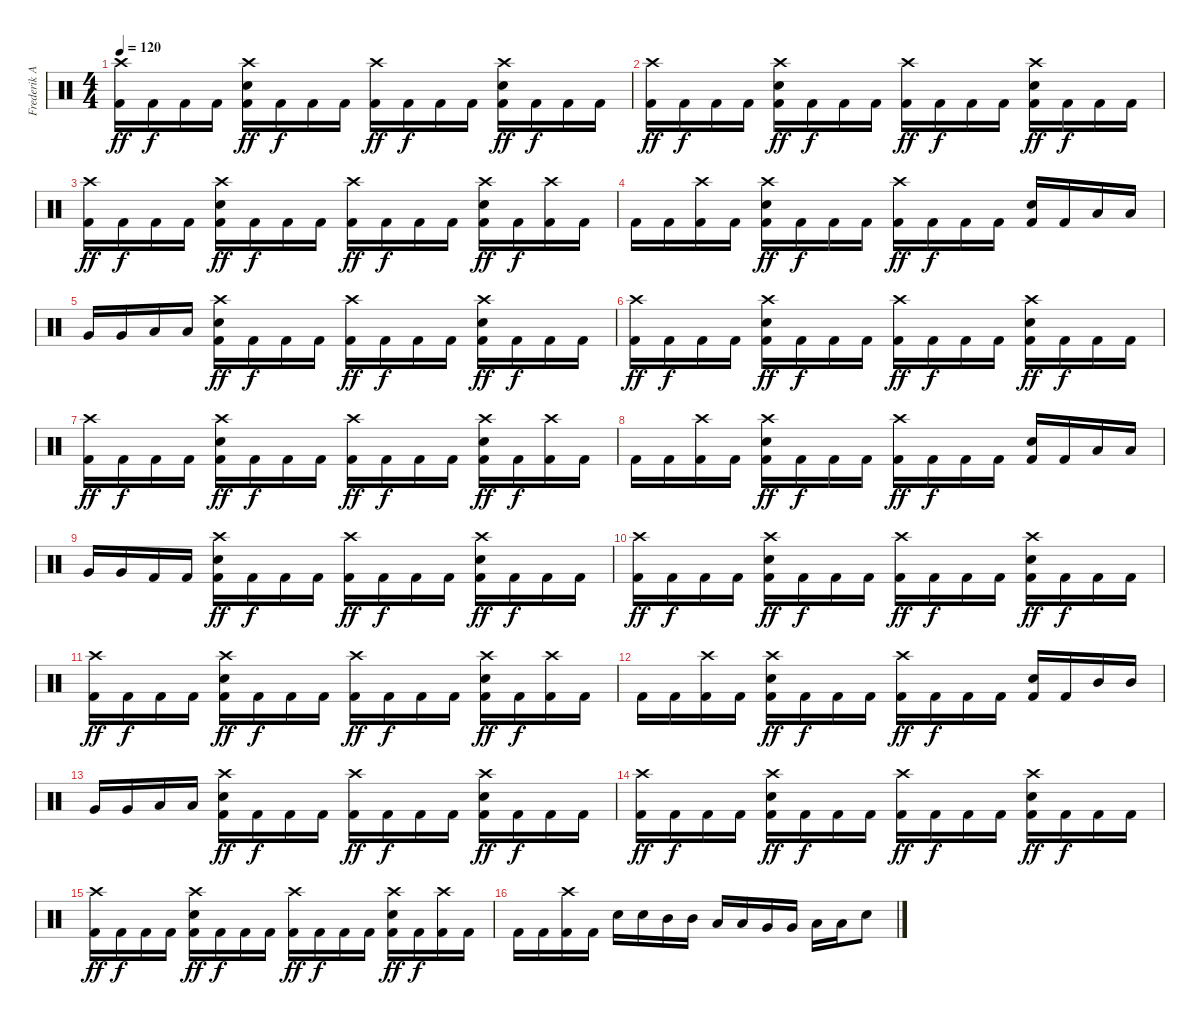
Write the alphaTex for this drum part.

\track ("Frederik Anderson" "Frederik A") {instrument percussion}
\staff {score}
\articulation defaults
\ts (4 4)
\tempo 120
\clef neutral
\ks c
("Crash high (hit)" "Kick (hit) 2").16{dy ff} "Kick (hit) 2".16{dy f} "Kick (hit) 2".16 "Kick (hit) 2".16 ("Crash high (hit)" "Electric Snare (hit)" "Kick (hit) 2").16{dy ff} "Kick (hit) 2".16{dy f} "Kick (hit) 2".16 "Kick (hit) 2".16 ("Crash high (hit)" "Kick (hit) 2").16{dy ff} "Kick (hit) 2".16{dy f} "Kick (hit) 2".16 "Kick (hit) 2".16 ("Crash high (hit)" "Electric Snare (hit)" "Kick (hit) 2").16{dy ff} "Kick (hit) 2".16{dy f} "Kick (hit) 2".16 "Kick (hit) 2".16 |
("Crash high (hit)" "Kick (hit) 2").16{dy ff} "Kick (hit) 2".16{dy f} "Kick (hit) 2".16 "Kick (hit) 2".16 ("Crash high (hit)" "Electric Snare (hit)" "Kick (hit) 2").16{dy ff} "Kick (hit) 2".16{dy f} "Kick (hit) 2".16 "Kick (hit) 2".16 ("Crash high (hit)" "Kick (hit) 2").16{dy ff} "Kick (hit) 2".16{dy f} "Kick (hit) 2".16 "Kick (hit) 2".16 ("Crash high (hit)" "Electric Snare (hit)" "Kick (hit) 2").16{dy ff} "Kick (hit) 2".16{dy f} "Kick (hit) 2".16 "Kick (hit) 2".16 |
("Crash high (hit)" "Kick (hit) 2").16{dy ff} "Kick (hit) 2".16{dy f} "Kick (hit) 2".16 "Kick (hit) 2".16 ("Crash high (hit)" "Electric Snare (hit)" "Kick (hit) 2").16{dy ff} "Kick (hit) 2".16{dy f} "Kick (hit) 2".16 "Kick (hit) 2".16 ("Crash high (hit)" "Kick (hit) 2").16{dy ff} "Kick (hit) 2".16{dy f} "Kick (hit) 2".16 "Kick (hit) 2".16 ("Crash high (hit)" "Electric Snare (hit)" "Kick (hit) 2").16{dy ff} "Kick (hit) 2".16{dy f} ("Crash high (hit)" "Kick (hit) 2").16 "Kick (hit) 2".16 |
"Kick (hit) 2".16 "Kick (hit) 2".16 ("Crash high (hit)" "Kick (hit) 2").16 "Kick (hit) 2".16 ("Crash high (hit)" "Electric Snare (hit)" "Kick (hit) 2").16{dy ff} "Kick (hit) 2".16{dy f} "Kick (hit) 2".16 "Kick (hit) 2".16 ("Crash high (hit)" "Kick (hit) 2").16{dy ff} "Kick (hit) 2".16{dy f} "Kick (hit) 2".16 "Kick (hit) 2".16 ("Electric Snare (hit)" "Kick (hit) 2").16 "Kick (hit) 2".16 "Low Tom (hit)".16 "Low Tom (hit)".16 |
"Very Low Tom (hit)".16 "Very Low Tom (hit)".16 "Low Floor Tom (hit)".16 "Low Floor Tom (hit)".16 ("Crash high (hit)" "Electric Snare (hit)" "Kick (hit) 2").16{dy ff} "Kick (hit) 2".16{dy f} "Kick (hit) 2".16 "Kick (hit) 2".16 ("Crash high (hit)" "Kick (hit) 2").16{dy ff} "Kick (hit) 2".16{dy f} "Kick (hit) 2".16 "Kick (hit) 2".16 ("Crash high (hit)" "Electric Snare (hit)" "Kick (hit) 2").16{dy ff} "Kick (hit) 2".16{dy f} "Kick (hit) 2".16 "Kick (hit) 2".16 |
("Crash high (hit)" "Kick (hit) 2").16{dy ff} "Kick (hit) 2".16{dy f} "Kick (hit) 2".16 "Kick (hit) 2".16 ("Crash high (hit)" "Electric Snare (hit)" "Kick (hit) 2").16{dy ff} "Kick (hit) 2".16{dy f} "Kick (hit) 2".16 "Kick (hit) 2".16 ("Crash high (hit)" "Kick (hit) 2").16{dy ff} "Kick (hit) 2".16{dy f} "Kick (hit) 2".16 "Kick (hit) 2".16 ("Crash high (hit)" "Electric Snare (hit)" "Kick (hit) 2").16{dy ff} "Kick (hit) 2".16{dy f} "Kick (hit) 2".16 "Kick (hit) 2".16 |
("Crash high (hit)" "Kick (hit) 2").16{dy ff} "Kick (hit) 2".16{dy f} "Kick (hit) 2".16 "Kick (hit) 2".16 ("Crash high (hit)" "Electric Snare (hit)" "Kick (hit) 2").16{dy ff} "Kick (hit) 2".16{dy f} "Kick (hit) 2".16 "Kick (hit) 2".16 ("Crash high (hit)" "Kick (hit) 2").16{dy ff} "Kick (hit) 2".16{dy f} "Kick (hit) 2".16 "Kick (hit) 2".16 ("Crash high (hit)" "Electric Snare (hit)" "Kick (hit) 2").16{dy ff} "Kick (hit) 2".16{dy f} ("Crash high (hit)" "Kick (hit) 2").16 "Kick (hit) 2".16 |
"Kick (hit) 2".16 "Kick (hit) 2".16 ("Crash high (hit)" "Kick (hit) 2").16 "Kick (hit) 2".16 ("Crash high (hit)" "Electric Snare (hit)" "Kick (hit) 2").16{dy ff} "Kick (hit) 2".16{dy f} "Kick (hit) 2".16 "Kick (hit) 2".16 ("Crash high (hit)" "Kick (hit) 2").16{dy ff} "Kick (hit) 2".16{dy f} "Kick (hit) 2".16 "Kick (hit) 2".16 ("Electric Snare (hit)" "Kick (hit) 2").16 "Kick (hit) 2".16 "Low Tom (hit)".16 "Low Tom (hit)".16 |
"Very Low Tom (hit)".16 "Very Low Tom (hit)".16 "Kick (hit) 2".16 "Kick (hit) 2".16 ("Crash high (hit)" "Electric Snare (hit)" "Kick (hit) 2").16{dy ff} "Kick (hit) 2".16{dy f} "Kick (hit) 2".16 "Kick (hit) 2".16 ("Crash high (hit)" "Kick (hit) 2").16{dy ff} "Kick (hit) 2".16{dy f} "Kick (hit) 2".16 "Kick (hit) 2".16 ("Crash high (hit)" "Electric Snare (hit)" "Kick (hit) 2").16{dy ff} "Kick (hit) 2".16{dy f} "Kick (hit) 2".16 "Kick (hit) 2".16 |
("Crash high (hit)" "Kick (hit) 2").16{dy ff} "Kick (hit) 2".16{dy f} "Kick (hit) 2".16 "Kick (hit) 2".16 ("Crash high (hit)" "Electric Snare (hit)" "Kick (hit) 2").16{dy ff} "Kick (hit) 2".16{dy f} "Kick (hit) 2".16 "Kick (hit) 2".16 ("Crash high (hit)" "Kick (hit) 2").16{dy ff} "Kick (hit) 2".16{dy f} "Kick (hit) 2".16 "Kick (hit) 2".16 ("Crash high (hit)" "Electric Snare (hit)" "Kick (hit) 2").16{dy ff} "Kick (hit) 2".16{dy f} "Kick (hit) 2".16 "Kick (hit) 2".16 |
("Crash high (hit)" "Kick (hit) 2").16{dy ff} "Kick (hit) 2".16{dy f} "Kick (hit) 2".16 "Kick (hit) 2".16 ("Crash high (hit)" "Electric Snare (hit)" "Kick (hit) 2").16{dy ff} "Kick (hit) 2".16{dy f} "Kick (hit) 2".16 "Kick (hit) 2".16 ("Crash high (hit)" "Kick (hit) 2").16{dy ff} "Kick (hit) 2".16{dy f} "Kick (hit) 2".16 "Kick (hit) 2".16 ("Crash high (hit)" "Electric Snare (hit)" "Kick (hit) 2").16{dy ff} "Kick (hit) 2".16{dy f} ("Crash high (hit)" "Kick (hit) 2").16 "Kick (hit) 2".16 |
"Kick (hit) 2".16 "Kick (hit) 2".16 ("Crash high (hit)" "Kick (hit) 2").16 "Kick (hit) 2".16 ("Crash high (hit)" "Electric Snare (hit)" "Kick (hit) 2").16{dy ff} "Kick (hit) 2".16{dy f} "Kick (hit) 2".16 "Kick (hit) 2".16 ("Crash high (hit)" "Kick (hit) 2").16{dy ff} "Kick (hit) 2".16{dy f} "Kick (hit) 2".16 "Kick (hit) 2".16 ("Electric Snare (hit)" "Kick (hit) 2").16 "Kick (hit) 2".16 "Mid Tom (hit)".16 "Mid Tom (hit)".16 |
"Very Low Tom (hit)".16 "Very Low Tom (hit)".16 "Low Floor Tom (hit)".16 "Low Floor Tom (hit)".16 ("Crash high (hit)" "Electric Snare (hit)" "Kick (hit) 2").16{dy ff} "Kick (hit) 2".16{dy f} "Kick (hit) 2".16 "Kick (hit) 2".16 ("Crash high (hit)" "Kick (hit) 2").16{dy ff} "Kick (hit) 2".16{dy f} "Kick (hit) 2".16 "Kick (hit) 2".16 ("Crash high (hit)" "Electric Snare (hit)" "Kick (hit) 2").16{dy ff} "Kick (hit) 2".16{dy f} "Kick (hit) 2".16 "Kick (hit) 2".16 |
("Crash high (hit)" "Kick (hit) 2").16{dy ff} "Kick (hit) 2".16{dy f} "Kick (hit) 2".16 "Kick (hit) 2".16 ("Crash high (hit)" "Electric Snare (hit)" "Kick (hit) 2").16{dy ff} "Kick (hit) 2".16{dy f} "Kick (hit) 2".16 "Kick (hit) 2".16 ("Crash high (hit)" "Kick (hit) 2").16{dy ff} "Kick (hit) 2".16{dy f} "Kick (hit) 2".16 "Kick (hit) 2".16 ("Crash high (hit)" "Electric Snare (hit)" "Kick (hit) 2").16{dy ff} "Kick (hit) 2".16{dy f} "Kick (hit) 2".16 "Kick (hit) 2".16 |
("Crash high (hit)" "Kick (hit) 2").16{dy ff} "Kick (hit) 2".16{dy f} "Kick (hit) 2".16 "Kick (hit) 2".16 ("Crash high (hit)" "Electric Snare (hit)" "Kick (hit) 2").16{dy ff} "Kick (hit) 2".16{dy f} "Kick (hit) 2".16 "Kick (hit) 2".16 ("Crash high (hit)" "Kick (hit) 2").16{dy ff} "Kick (hit) 2".16{dy f} "Kick (hit) 2".16 "Kick (hit) 2".16 ("Crash high (hit)" "Electric Snare (hit)" "Kick (hit) 2").16{dy ff} "Kick (hit) 2".16{dy f} ("Crash high (hit)" "Kick (hit) 2").16 "Kick (hit) 2".16 |
"Kick (hit) 2".16 "Kick (hit) 2".16 ("Crash high (hit)" "Kick (hit) 2").16 "Kick (hit) 2".16 "Electric Snare (hit)".16 "Electric Snare (hit)".16 "Mid Tom (hit)".16 "Mid Tom (hit)".16 "Low Tom (hit)".16 "Low Tom (hit)".16 "Very Low Tom (hit)".16 "Very Low Tom (hit)".16 "Low Floor Tom (hit)".16 "Low Floor Tom (hit)".16 "Electric Snare (hit)".8
